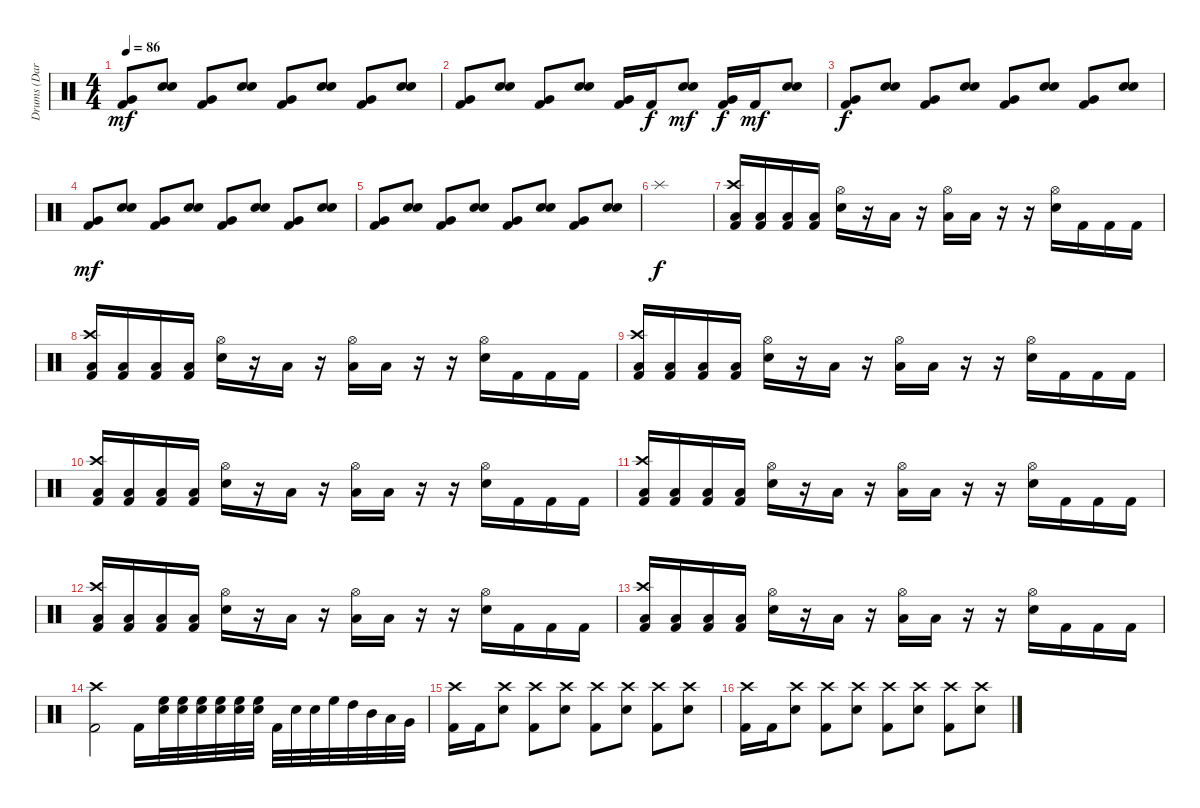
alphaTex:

\track ("Drums (Daray) " "Drums (Dar") {instrument percussion}
\staff {score}
\articulation defaults
\ts (4 4)
\tempo 86
\clef neutral
\ks c
("Very Low Tom (hit)" "Kick (hit) 2").8{dy mf} ("Electric Snare (hit)" "Electric Snare (hit)").8 ("Very Low Tom (hit)" "Kick (hit) 2").8 ("Electric Snare (hit)" "Electric Snare (hit)").8 ("Very Low Tom (hit)" "Kick (hit) 2").8 ("Electric Snare (hit)" "Electric Snare (hit)").8 ("Very Low Tom (hit)" "Kick (hit) 2").8 ("Electric Snare (hit)" "Electric Snare (hit)").8 |
("Very Low Tom (hit)" "Kick (hit) 2").8 ("Electric Snare (hit)" "Electric Snare (hit)").8 ("Very Low Tom (hit)" "Kick (hit) 2").8 ("Electric Snare (hit)" "Electric Snare (hit)").8 ("Very Low Tom (hit)" "Kick (hit) 2").16 "Kick (hit) 2".16{dy f} ("Electric Snare (hit)" "Electric Snare (hit)").8{dy mf} ("Very Low Tom (hit)" "Kick (hit) 2").16{dy f} "Kick (hit) 2".16{dy mf} ("Electric Snare (hit)" "Electric Snare (hit)").8 |
("Very Low Tom (hit)" "Kick (hit) 2").8{dy f} ("Electric Snare (hit)" "Electric Snare (hit)").8 ("Very Low Tom (hit)" "Kick (hit) 2").8 ("Electric Snare (hit)" "Electric Snare (hit)").8 ("Very Low Tom (hit)" "Kick (hit) 2").8 ("Electric Snare (hit)" "Electric Snare (hit)").8 ("Very Low Tom (hit)" "Kick (hit) 2").8 ("Electric Snare (hit)" "Electric Snare (hit)").8 |
("Very Low Tom (hit)" "Kick (hit) 2").8{dy mf} ("Electric Snare (hit)" "Electric Snare (hit)").8 ("Very Low Tom (hit)" "Kick (hit) 2").8 ("Electric Snare (hit)" "Electric Snare (hit)").8 ("Very Low Tom (hit)" "Kick (hit) 2").8 ("Electric Snare (hit)" "Electric Snare (hit)").8 ("Very Low Tom (hit)" "Kick (hit) 2").8 ("Electric Snare (hit)" "Electric Snare (hit)").8 |
("Very Low Tom (hit)" "Kick (hit) 2").8 ("Electric Snare (hit)" "Electric Snare (hit)").8 ("Very Low Tom (hit)" "Kick (hit) 2").8 ("Electric Snare (hit)" "Electric Snare (hit)").8 ("Very Low Tom (hit)" "Kick (hit) 2").8 ("Electric Snare (hit)" "Electric Snare (hit)").8 ("Very Low Tom (hit)" "Kick (hit) 2").8 ("Electric Snare (hit)" "Electric Snare (hit)").8 |
"Splash (hit)".1{dy f} |
("Crash high (hit)" "Low Tom (hit)" "Kick (hit) 2").16 ("Low Tom (hit)" "Kick (hit) 2").16 ("Low Tom (hit)" "Kick (hit) 2").16 ("Low Tom (hit)" "Kick (hit) 2").16 ("Hi-Hat (open)" "Electric Snare (hit)").16 r.16 "Low Tom (hit)".16 r.16 ("Hi-Hat (open)" "Low Tom (hit)").16 "Low Tom (hit)".16 r.16 r.16 ("Hi-Hat (open)" "Electric Snare (hit)").16 "Kick (hit) 2".16 "Kick (hit) 2".16 "Kick (hit) 2".16 |
("Crash high (hit)" "Low Tom (hit)" "Kick (hit) 2").16 ("Low Tom (hit)" "Kick (hit) 2").16 ("Low Tom (hit)" "Kick (hit) 2").16 ("Low Tom (hit)" "Kick (hit) 2").16 ("Hi-Hat (open)" "Electric Snare (hit)").16 r.16 "Low Tom (hit)".16 r.16 ("Hi-Hat (open)" "Low Tom (hit)").16 "Low Tom (hit)".16 r.16 r.16 ("Hi-Hat (open)" "Electric Snare (hit)").16 "Kick (hit) 2".16 "Kick (hit) 2".16 "Kick (hit) 2".16 |
("Crash high (hit)" "Low Tom (hit)" "Kick (hit) 2").16 ("Low Tom (hit)" "Kick (hit) 2").16 ("Low Tom (hit)" "Kick (hit) 2").16 ("Low Tom (hit)" "Kick (hit) 2").16 ("Hi-Hat (open)" "Electric Snare (hit)").16 r.16 "Low Tom (hit)".16 r.16 ("Hi-Hat (open)" "Low Tom (hit)").16 "Low Tom (hit)".16 r.16 r.16 ("Hi-Hat (open)" "Electric Snare (hit)").16 "Kick (hit) 2".16 "Kick (hit) 2".16 "Kick (hit) 2".16 |
("Crash high (hit)" "Low Tom (hit)" "Kick (hit) 2").16 ("Low Tom (hit)" "Kick (hit) 2").16 ("Low Tom (hit)" "Kick (hit) 2").16 ("Low Tom (hit)" "Kick (hit) 2").16 ("Hi-Hat (open)" "Electric Snare (hit)").16 r.16 "Low Tom (hit)".16 r.16 ("Hi-Hat (open)" "Low Tom (hit)").16 "Low Tom (hit)".16 r.16 r.16 ("Hi-Hat (open)" "Electric Snare (hit)").16 "Kick (hit) 2".16 "Kick (hit) 2".16 "Kick (hit) 2".16 |
("Crash high (hit)" "Low Tom (hit)" "Kick (hit) 2").16 ("Low Tom (hit)" "Kick (hit) 2").16 ("Low Tom (hit)" "Kick (hit) 2").16 ("Low Tom (hit)" "Kick (hit) 2").16 ("Hi-Hat (open)" "Electric Snare (hit)").16 r.16 "Low Tom (hit)".16 r.16 ("Hi-Hat (open)" "Low Tom (hit)").16 "Low Tom (hit)".16 r.16 r.16 ("Hi-Hat (open)" "Electric Snare (hit)").16 "Kick (hit) 2".16 "Kick (hit) 2".16 "Kick (hit) 2".16 |
("Crash high (hit)" "Low Tom (hit)" "Kick (hit) 2").16 ("Low Tom (hit)" "Kick (hit) 2").16 ("Low Tom (hit)" "Kick (hit) 2").16 ("Low Tom (hit)" "Kick (hit) 2").16 ("Hi-Hat (open)" "Electric Snare (hit)").16 r.16 "Low Tom (hit)".16 r.16 ("Hi-Hat (open)" "Low Tom (hit)").16 "Low Tom (hit)".16 r.16 r.16 ("Hi-Hat (open)" "Electric Snare (hit)").16 "Kick (hit) 2".16 "Kick (hit) 2".16 "Kick (hit) 2".16 |
("Crash high (hit)" "Low Tom (hit)" "Kick (hit) 2").16 ("Low Tom (hit)" "Kick (hit) 2").16 ("Low Tom (hit)" "Kick (hit) 2").16 ("Low Tom (hit)" "Kick (hit) 2").16 ("Hi-Hat (open)" "Electric Snare (hit)").16 r.16 "Low Tom (hit)".16 r.16 ("Hi-Hat (open)" "Low Tom (hit)").16 "Low Tom (hit)".16 r.16 r.16 ("Hi-Hat (open)" "Electric Snare (hit)").16 "Kick (hit) 2".16 "Kick (hit) 2".16 "Kick (hit) 2".16 |
("Crash high (hit)" "Kick (hit) 2").2 "Kick (hit) 2".16 ("High Floor Tom (hit)" "Electric Snare (hit)").32 ("High Floor Tom (hit)" "Electric Snare (hit)").32 ("High Floor Tom (hit)" "Electric Snare (hit)").32 ("High Floor Tom (hit)" "Electric Snare (hit)").32 ("High Floor Tom (hit)" "Electric Snare (hit)").32 ("High Floor Tom (hit)" "Electric Snare (hit)").32 "Kick (hit) 2".32 "Electric Snare (hit)".32 "Electric Snare (hit)".32 "High Floor Tom (hit)".32 "High Tom (hit)".32 "Mid Tom (hit)".32 "Low Tom (hit)".32 "Very Low Tom (hit)".32 |
("Crash high (hit)" "Kick (hit) 2").16 "Kick (hit) 2".16 ("Crash high (hit)" "Electric Snare (hit)").8 ("Crash high (hit)" "Kick (hit) 2").8 ("Crash high (hit)" "Electric Snare (hit)").8 ("Crash high (hit)" "Kick (hit) 2").8 ("Crash high (hit)" "Electric Snare (hit)").8 ("Crash high (hit)" "Kick (hit) 2").8 ("Crash high (hit)" "Electric Snare (hit)").8 |
("Crash high (hit)" "Kick (hit) 2").16 "Kick (hit) 2".16 ("Crash high (hit)" "Electric Snare (hit)").8 ("Crash high (hit)" "Kick (hit) 2").8 ("Crash high (hit)" "Electric Snare (hit)").8 ("Crash high (hit)" "Kick (hit) 2").8 ("Crash high (hit)" "Electric Snare (hit)").8 ("Crash high (hit)" "Kick (hit) 2").8 ("Crash high (hit)" "Electric Snare (hit)").8
